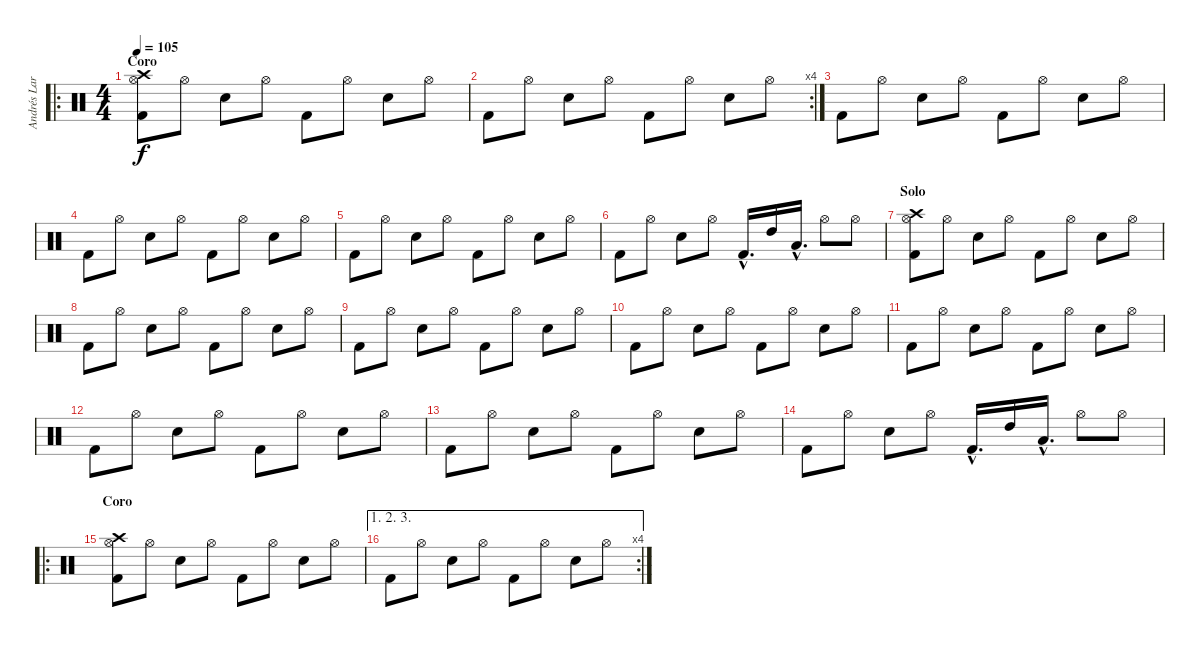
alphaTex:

\track ("Andrés Larraín (batería)" "Andrés Lar") {instrument percussion}
\staff {score}
\articulation defaults
\ro
\ts (4 4)
\section ("" "Coro")
\tempo 105
\clef neutral
\ks c
("Crash high (hit)" "Hi-Hat (open)" "Kick (hit) 2").8{dy f} "Hi-Hat (open)".8 "Snare (hit) 2".8 "Hi-Hat (open)".8 "Kick (hit) 2".8 "Hi-Hat (open)".8 "Snare (hit) 2".8 "Hi-Hat (open)".8 |
\rc 4 "Kick (hit) 2".8 "Hi-Hat (open)".8 "Snare (hit) 2".8 "Hi-Hat (open)".8 "Kick (hit) 2".8 "Hi-Hat (open)".8 "Snare (hit) 2".8 "Hi-Hat (open)".8
|
"Kick (hit) 2".8 "Hi-Hat (open)".8 "Snare (hit) 2".8 "Hi-Hat (open)".8 "Kick (hit) 2".8 "Hi-Hat (open)".8 "Snare (hit) 2".8 "Hi-Hat (open)".8 |
"Kick (hit) 2".8 "Hi-Hat (open)".8 "Snare (hit) 2".8 "Hi-Hat (open)".8 "Kick (hit) 2".8 "Hi-Hat (open)".8 "Snare (hit) 2".8 "Hi-Hat (open)".8 |
"Kick (hit) 2".8 "Hi-Hat (open)".8 "Snare (hit) 2".8 "Hi-Hat (open)".8 "Kick (hit) 2".8 "Hi-Hat (open)".8 "Snare (hit) 2".8 "Hi-Hat (open)".8 |
"Kick (hit) 2".8 "Hi-Hat (open)".8 "Snare (hit) 2".8 "Hi-Hat (open)".8 "Kick (hit) 2"{hac}.16{d} "High Tom (hit)".16 "Low Tom (hit)"{hac}.16{d} "Hi-Hat (open)".8 "Hi-Hat (open)".8 |
\section ("" "Solo")
("Crash high (hit)" "Kick (hit) 2" "Hi-Hat (open)").8 "Hi-Hat (open)".8 "Snare (hit) 2".8 "Hi-Hat (open)".8 "Kick (hit) 2".8 "Hi-Hat (open)".8 "Snare (hit) 2".8 "Hi-Hat (open)".8 |
"Kick (hit) 2".8 "Hi-Hat (open)".8 "Snare (hit) 2".8 "Hi-Hat (open)".8 "Kick (hit) 2".8 "Hi-Hat (open)".8 "Snare (hit) 2".8 "Hi-Hat (open)".8 |
"Kick (hit) 2".8 "Hi-Hat (open)".8 "Snare (hit) 2".8 "Hi-Hat (open)".8 "Kick (hit) 2".8 "Hi-Hat (open)".8 "Snare (hit) 2".8 "Hi-Hat (open)".8 |
"Kick (hit) 2".8 "Hi-Hat (open)".8 "Snare (hit) 2".8 "Hi-Hat (open)".8 "Kick (hit) 2".8 "Hi-Hat (open)".8 "Snare (hit) 2".8 "Hi-Hat (open)".8 |
"Kick (hit) 2".8 "Hi-Hat (open)".8 "Snare (hit) 2".8 "Hi-Hat (open)".8 "Kick (hit) 2".8 "Hi-Hat (open)".8 "Snare (hit) 2".8 "Hi-Hat (open)".8 |
"Kick (hit) 2".8 "Hi-Hat (open)".8 "Snare (hit) 2".8 "Hi-Hat (open)".8 "Kick (hit) 2".8 "Hi-Hat (open)".8 "Snare (hit) 2".8 "Hi-Hat (open)".8 |
"Kick (hit) 2".8 "Hi-Hat (open)".8 "Snare (hit) 2".8 "Hi-Hat (open)".8 "Kick (hit) 2".8 "Hi-Hat (open)".8 "Snare (hit) 2".8 "Hi-Hat (open)".8 |
"Kick (hit) 2".8 "Hi-Hat (open)".8 "Snare (hit) 2".8 "Hi-Hat (open)".8 "Kick (hit) 2"{hac}.16{d} "High Tom (hit)".16 "Low Tom (hit)"{hac}.16{d} "Hi-Hat (open)".8 "Hi-Hat (open)".8 |
\ro
\section ("" "Coro")
("Crash high (hit)" "Kick (hit) 2" "Hi-Hat (open)").8 "Hi-Hat (open)".8 "Snare (hit) 2".8 "Hi-Hat (open)".8 "Kick (hit) 2".8 "Hi-Hat (open)".8 "Snare (hit) 2".8 "Hi-Hat (open)".8 |
\ae (1 2 3)
\rc 4 "Kick (hit) 2".8 "Hi-Hat (open)".8 "Snare (hit) 2".8 "Hi-Hat (open)".8 "Kick (hit) 2".8 "Hi-Hat (open)".8 "Snare (hit) 2".8 "Hi-Hat (open)".8
